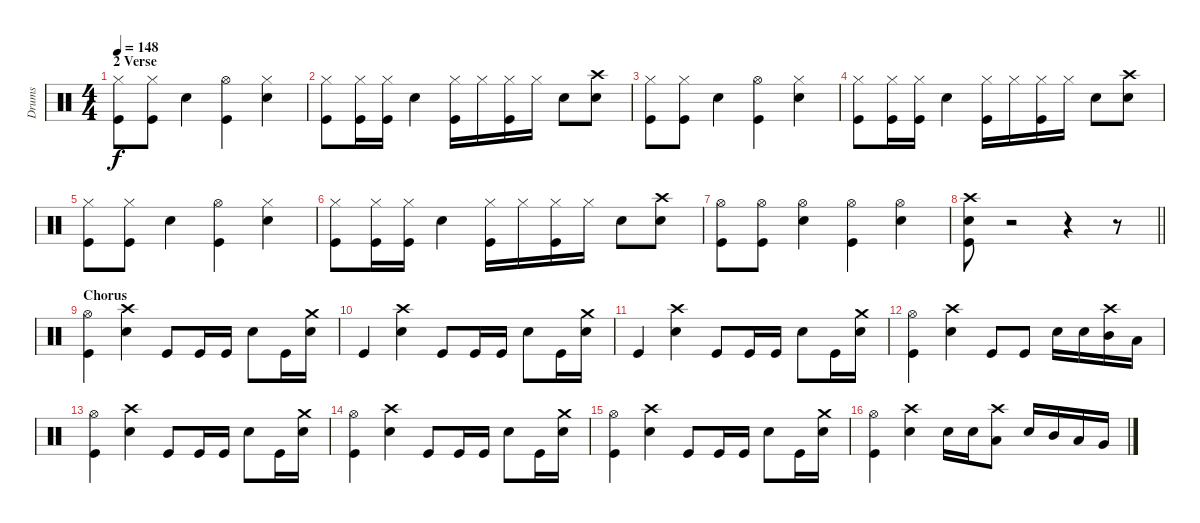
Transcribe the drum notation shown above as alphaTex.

\track ("Drums" "Drums") {instrument percussion}
\staff {score}
\articulation defaults
\ts (4 4)
\section ("" "2 Verse")
\tempo 148
\clef neutral
\ks c
("Hi-Hat (closed)" "Kick (hit)").8{dy f} ("Hi-Hat (closed)" "Kick (hit)").8 "Electric Snare (hit)".4 ("Hi-Hat (open)" "Kick (hit)").4 ("Hi-Hat (closed)" "Electric Snare (hit)").4 |
("Hi-Hat (closed)" "Kick (hit)").8 ("Hi-Hat (closed)" "Kick (hit)").16 ("Hi-Hat (closed)" "Kick (hit)").16 "Electric Snare (hit)".4 ("Hi-Hat (closed)" "Kick (hit)").16 "Hi-Hat (closed)".16 ("Hi-Hat (closed)" "Kick (hit)").16 "Hi-Hat (closed)".16 "Electric Snare (hit)".8 ("Crash high (hit)" "Electric Snare (hit)").8 |
("Hi-Hat (closed)" "Kick (hit)").8 ("Hi-Hat (closed)" "Kick (hit)").8 "Electric Snare (hit)".4 ("Hi-Hat (open)" "Kick (hit)").4 ("Hi-Hat (closed)" "Electric Snare (hit)").4 |
("Hi-Hat (closed)" "Kick (hit)").8 ("Hi-Hat (closed)" "Kick (hit)").16 ("Hi-Hat (closed)" "Kick (hit)").16 "Electric Snare (hit)".4 ("Hi-Hat (closed)" "Kick (hit)").16 "Hi-Hat (closed)".16 ("Hi-Hat (closed)" "Kick (hit)").16 "Hi-Hat (closed)".16 "Electric Snare (hit)".8 ("Crash high (hit)" "Electric Snare (hit)").8 |
("Hi-Hat (closed)" "Kick (hit)").8 ("Hi-Hat (closed)" "Kick (hit)").8 "Electric Snare (hit)".4 ("Hi-Hat (open)" "Kick (hit)").4 ("Hi-Hat (closed)" "Electric Snare (hit)").4 |
("Hi-Hat (closed)" "Kick (hit)").8 ("Hi-Hat (closed)" "Kick (hit)").16 ("Hi-Hat (closed)" "Kick (hit)").16 "Electric Snare (hit)".4 ("Hi-Hat (closed)" "Kick (hit)").16 "Hi-Hat (closed)".16 ("Hi-Hat (closed)" "Kick (hit)").16 "Hi-Hat (closed)".16 "Electric Snare (hit)".8 ("Crash high (hit)" "Electric Snare (hit)").8 |
("Hi-Hat (open)" "Kick (hit)").8 ("Hi-Hat (open)" "Kick (hit)").8 ("Hi-Hat (open)" "Electric Snare (hit)").4 ("Hi-Hat (open)" "Kick (hit)").4 ("Hi-Hat (open)" "Electric Snare (hit)").4 |
\barLineRight lightlight
("Crash high (hit)" "Electric Snare (hit)" "Kick (hit)").8 r.2 r.4 r.8 |
\section ("" "Chorus")
("Hi-Hat (open)" "Kick (hit)").4 ("Crash high (hit)" "Electric Snare (hit)").4 "Kick (hit)".8 "Kick (hit)".16 "Kick (hit)".16 "Electric Snare (hit)".8 "Kick (hit)".16 ("Crash medium (hit)" "Electric Snare (hit)").16 |
"Kick (hit)".4 ("Crash high (hit)" "Electric Snare (hit)").4 "Kick (hit)".8 "Kick (hit)".16 "Kick (hit)".16 "Electric Snare (hit)".8 "Kick (hit)".16 ("Crash medium (hit)" "Electric Snare (hit)").16 |
"Kick (hit)".4 ("Crash high (hit)" "Electric Snare (hit)").4 "Kick (hit)".8 "Kick (hit)".16 "Kick (hit)".16 "Electric Snare (hit)".8 "Kick (hit)".16 ("Crash medium (hit)" "Electric Snare (hit)").16 |
("Hi-Hat (open)" "Kick (hit)").4 ("Crash high (hit)" "Electric Snare (hit)").4 "Kick (hit)".8 "Kick (hit)".8 "Electric Snare (hit)".16 "Electric Snare (hit)".16 ("Crash high (hit)" "Mid Tom (hit)").16 "Low Tom (hit)".16 |
("Hi-Hat (open)" "Kick (hit)").4 ("Crash high (hit)" "Electric Snare (hit)").4 "Kick (hit)".8 "Kick (hit)".16 "Kick (hit)".16 "Electric Snare (hit)".8 "Kick (hit)".16 ("Crash medium (hit)" "Electric Snare (hit)").16 |
("Hi-Hat (open)" "Kick (hit)").4 ("Crash high (hit)" "Electric Snare (hit)").4 "Kick (hit)".8 "Kick (hit)".16 "Kick (hit)".16 "Electric Snare (hit)".8 "Kick (hit)".16 ("Crash medium (hit)" "Electric Snare (hit)").16 |
("Hi-Hat (open)" "Kick (hit)").4 ("Crash high (hit)" "Electric Snare (hit)").4 "Kick (hit)".8 "Kick (hit)".16 "Kick (hit)".16 "Electric Snare (hit)".8 "Kick (hit)".16 ("Crash medium (hit)" "Electric Snare (hit)").16 |
("Hi-Hat (open)" "Kick (hit)").4 ("Crash high (hit)" "Electric Snare (hit)").4 "Electric Snare (hit)".16 "Electric Snare (hit)".16 ("Crash high (hit)" "Low Floor Tom (hit)").8 "Electric Snare (hit)".16 "Mid Tom (hit)".16 "Low Tom (hit)".16 "Very Low Tom (hit)".16
